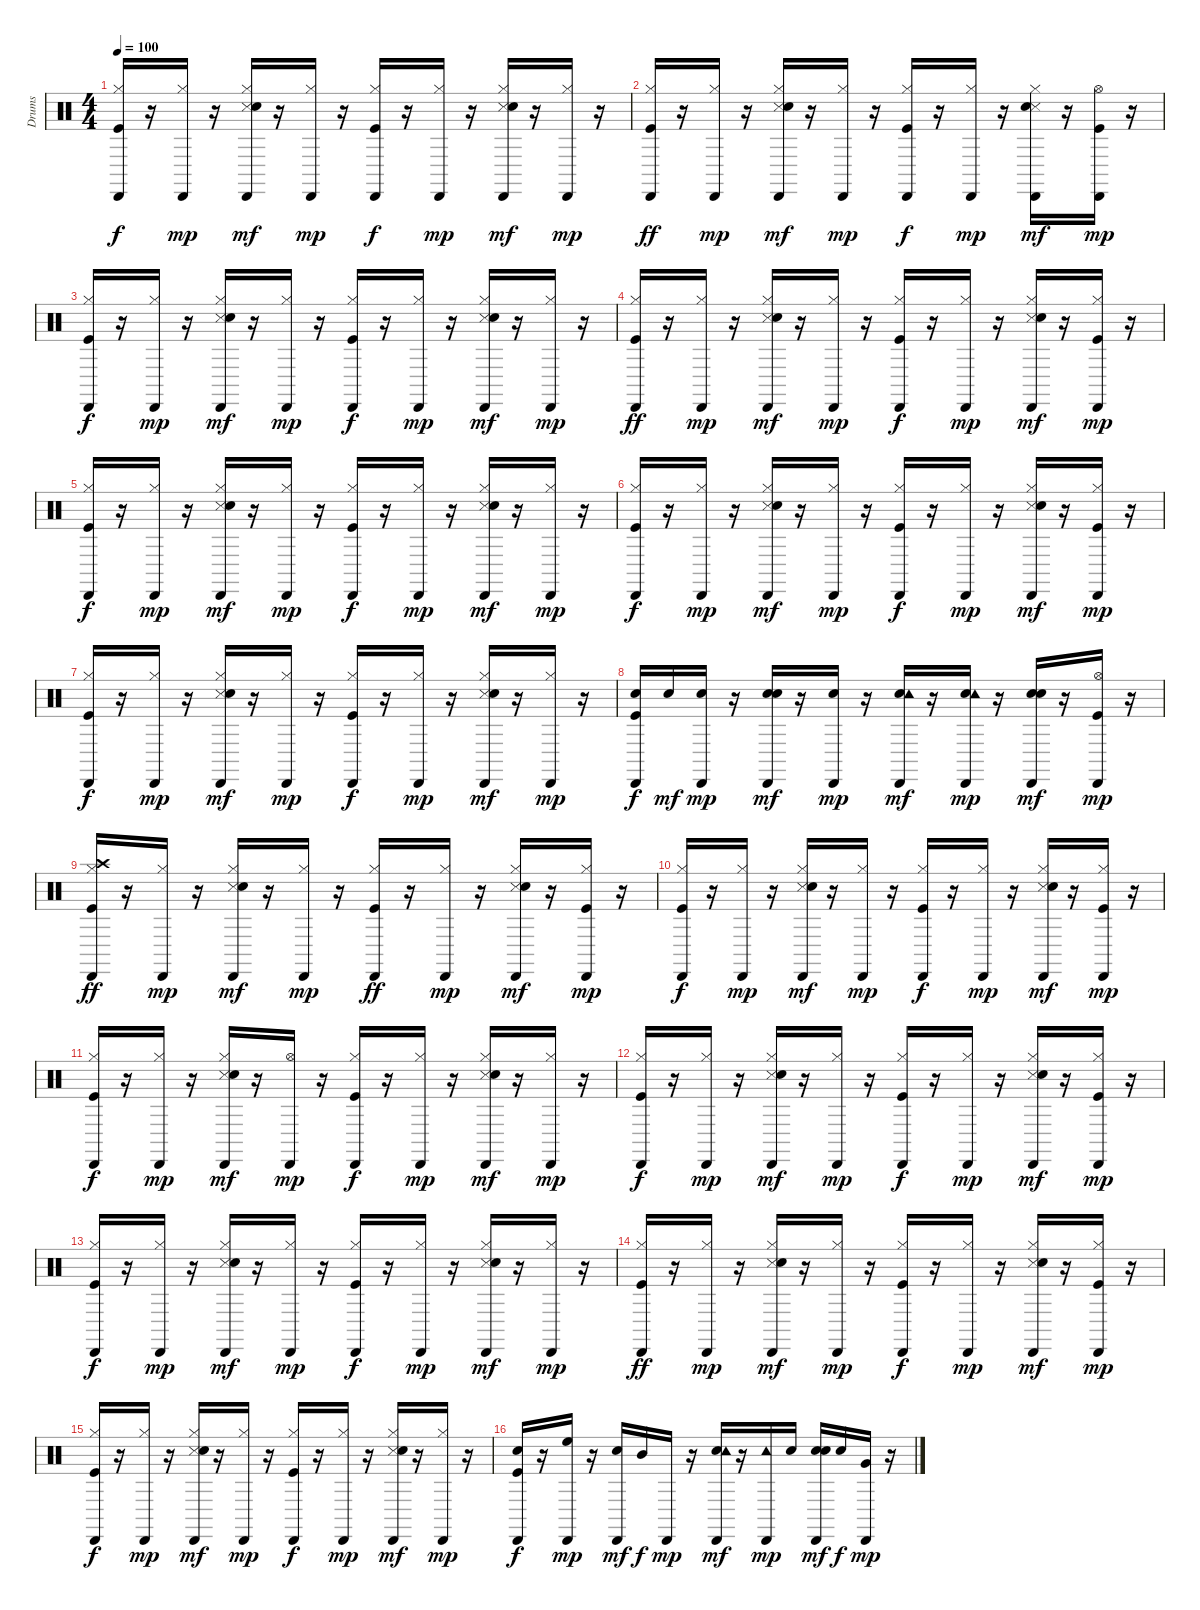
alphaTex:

\track ("Drums" "Drums") {instrument percussion}
\staff {score}
\articulation defaults
\ts (4 4)
\tempo 100
\clef neutral
\ks c
("Kick (hit)" "Hi-Hat (closed)" "Cabasa (hit)").16{dy f} r.16 ("Hi-Hat (closed)" "Cabasa (hit)").16{dy mp} r.16 ("Hi-Hat (closed)" "Snare (side stick) 3" "Hand Clap (hit)" "Cabasa (hit)").16{dy mf} r.16 ("Hi-Hat (closed)" "Cabasa (hit)").16{dy mp} r.16 ("Kick (hit)" "Hi-Hat (closed)" "Cabasa (hit)").16{dy f} r.16 ("Hi-Hat (closed)" "Cabasa (hit)").16{dy mp} r.16 ("Hi-Hat (closed)" "Snare (side stick) 3" "Hand Clap (hit)" "Cabasa (hit)").16{dy mf} r.16 ("Hi-Hat (closed)" "Cabasa (hit)").16{dy mp} r.16 |
("Kick (hit)" "Hi-Hat (closed)" "Cabasa (hit)").16{dy ff} r.16 ("Hi-Hat (closed)" "Cabasa (hit)").16{dy mp} r.16 ("Hi-Hat (closed)" "Snare (side stick) 3" "Hand Clap (hit)" "Cabasa (hit)").16{dy mf} r.16 ("Hi-Hat (closed)" "Cabasa (hit)").16{dy mp} r.16 ("Kick (hit)" "Hi-Hat (closed)" "Cabasa (hit)").16{dy f} r.16 ("Hi-Hat (closed)" "Cabasa (hit)").16{dy mp} r.16 ("Hi-Hat (closed)" "Snare (side stick) 3" "Hand Clap (hit)" "Cabasa (hit)").16{dy mf} r.16 ("Kick (hit)" "Hi-Hat (open)" "Cabasa (hit)").16{dy mp} r.16 |
("Kick (hit)" "Hi-Hat (closed)" "Cabasa (hit)").16{dy f} r.16 ("Hi-Hat (closed)" "Cabasa (hit)").16{dy mp} r.16 ("Hi-Hat (closed)" "Snare (side stick) 3" "Hand Clap (hit)" "Cabasa (hit)").16{dy mf} r.16 ("Hi-Hat (closed)" "Cabasa (hit)").16{dy mp} r.16 ("Kick (hit)" "Hi-Hat (closed)" "Cabasa (hit)").16{dy f} r.16 ("Hi-Hat (closed)" "Cabasa (hit)").16{dy mp} r.16 ("Hi-Hat (closed)" "Snare (side stick) 3" "Hand Clap (hit)" "Cabasa (hit)").16{dy mf} r.16 ("Hi-Hat (closed)" "Cabasa (hit)").16{dy mp} r.16 |
("Kick (hit)" "Hi-Hat (closed)" "Cabasa (hit)").16{dy ff} r.16 ("Hi-Hat (closed)" "Cabasa (hit)").16{dy mp} r.16 ("Hi-Hat (closed)" "Snare (side stick) 3" "Hand Clap (hit)" "Cabasa (hit)").16{dy mf} r.16 ("Hi-Hat (closed)" "Cabasa (hit)").16{dy mp} r.16 ("Kick (hit)" "Hi-Hat (closed)" "Cabasa (hit)").16{dy f} r.16 ("Hi-Hat (closed)" "Cabasa (hit)").16{dy mp} r.16 ("Hi-Hat (closed)" "Snare (side stick) 3" "Hand Clap (hit)" "Cabasa (hit)").16{dy mf} r.16 ("Kick (hit)" "Hi-Hat (closed)" "Cabasa (hit)").16{dy mp} r.16 |
("Kick (hit)" "Hi-Hat (closed)" "Cabasa (hit)").16{dy f} r.16 ("Hi-Hat (closed)" "Cabasa (hit)").16{dy mp} r.16 ("Hi-Hat (closed)" "Snare (side stick) 3" "Hand Clap (hit)" "Cabasa (hit)").16{dy mf} r.16 ("Hi-Hat (closed)" "Cabasa (hit)").16{dy mp} r.16 ("Kick (hit)" "Hi-Hat (closed)" "Cabasa (hit)").16{dy f} r.16 ("Hi-Hat (closed)" "Cabasa (hit)").16{dy mp} r.16 ("Hi-Hat (closed)" "Snare (side stick) 3" "Hand Clap (hit)" "Cabasa (hit)").16{dy mf} r.16 ("Hi-Hat (closed)" "Cabasa (hit)").16{dy mp} r.16 |
("Kick (hit)" "Hi-Hat (closed)" "Cabasa (hit)").16{dy f} r.16 ("Hi-Hat (closed)" "Cabasa (hit)").16{dy mp} r.16 ("Hi-Hat (closed)" "Snare (side stick) 3" "Hand Clap (hit)" "Cabasa (hit)").16{dy mf} r.16 ("Hi-Hat (closed)" "Cabasa (hit)").16{dy mp} r.16 ("Kick (hit)" "Hi-Hat (closed)" "Cabasa (hit)").16{dy f} r.16 ("Hi-Hat (closed)" "Cabasa (hit)").16{dy mp} r.16 ("Hi-Hat (closed)" "Snare (side stick) 3" "Hand Clap (hit)" "Cabasa (hit)").16{dy mf} r.16 ("Kick (hit)" "Hi-Hat (closed)" "Cabasa (hit)").16{dy mp} r.16 |
("Kick (hit)" "Hi-Hat (closed)" "Cabasa (hit)").16{dy f} r.16 ("Hi-Hat (closed)" "Cabasa (hit)").16{dy mp} r.16 ("Hi-Hat (closed)" "Snare (side stick) 3" "Hand Clap (hit)" "Cabasa (hit)").16{dy mf} r.16 ("Hi-Hat (closed)" "Cabasa (hit)").16{dy mp} r.16 ("Kick (hit)" "Hi-Hat (closed)" "Cabasa (hit)").16{dy f} r.16 ("Hi-Hat (closed)" "Cabasa (hit)").16{dy mp} r.16 ("Hi-Hat (closed)" "Snare (side stick) 3" "Hand Clap (hit)" "Cabasa (hit)").16{dy mf} r.16 ("Hi-Hat (closed)" "Cabasa (hit)").16{dy mp} r.16 |
("Kick (hit)" "Snare (hit) 2" "Cabasa (hit)").16{dy f} "Snare (hit) 2".16{dy mf} ("Snare (hit) 2" "Cabasa (hit)").16{dy mp} r.16 ("Snare (hit) 2" "Hand Clap (hit)" "Cabasa (hit)").16{dy mf} r.16 ("Snare (hit) 2" "Cabasa (hit)").16{dy mp} r.16 ("Snare (hit) 2" "Tambourine (hit)" "Cabasa (hit)").16{dy mf} r.16 ("Snare (hit) 2" "Tambourine (hit)" "Cabasa (hit)").16{dy mp} r.16 ("Snare (hit) 2" "Hand Clap (hit)" "Cabasa (hit)").16{dy mf} r.16 ("Kick (hit)" "Hi-Hat (open)" "Cabasa (hit)").16{dy mp} r.16 |
("Kick (hit)" "Hi-Hat (closed)" "Crash high (hit)" "Cabasa (hit)").16{dy ff} r.16 ("Hi-Hat (closed)" "Cabasa (hit)").16{dy mp} r.16 ("Hi-Hat (closed)" "Snare (side stick) 3" "Hand Clap (hit)" "Cabasa (hit)").16{dy mf} r.16 ("Hi-Hat (closed)" "Cabasa (hit)").16{dy mp} r.16 ("Kick (hit)" "Hi-Hat (closed)" "Cabasa (hit)").16{dy ff} r.16 ("Hi-Hat (closed)" "Cabasa (hit)").16{dy mp} r.16 ("Hi-Hat (closed)" "Snare (side stick) 3" "Hand Clap (hit)" "Cabasa (hit)").16{dy mf} r.16 ("Kick (hit)" "Hi-Hat (closed)" "Cabasa (hit)").16{dy mp} r.16 |
("Kick (hit)" "Hi-Hat (closed)" "Cabasa (hit)").16{dy f} r.16 ("Hi-Hat (closed)" "Cabasa (hit)").16{dy mp} r.16 ("Hi-Hat (closed)" "Snare (side stick) 3" "Hand Clap (hit)" "Cabasa (hit)").16{dy mf} r.16 ("Hi-Hat (closed)" "Cabasa (hit)").16{dy mp} r.16 ("Kick (hit)" "Hi-Hat (closed)" "Cabasa (hit)").16{dy f} r.16 ("Hi-Hat (closed)" "Cabasa (hit)").16{dy mp} r.16 ("Hi-Hat (closed)" "Snare (side stick) 3" "Hand Clap (hit)" "Cabasa (hit)").16{dy mf} r.16 ("Kick (hit)" "Hi-Hat (closed)" "Cabasa (hit)").16{dy mp} r.16 |
("Kick (hit)" "Hi-Hat (closed)" "Cabasa (hit)").16{dy f} r.16 ("Hi-Hat (closed)" "Cabasa (hit)").16{dy mp} r.16 ("Hi-Hat (closed)" "Snare (side stick) 3" "Hand Clap (hit)" "Cabasa (hit)").16{dy mf} r.16 ("Hi-Hat (open)" "Cabasa (hit)").16{dy mp} r.16 ("Kick (hit)" "Hi-Hat (closed)" "Cabasa (hit)").16{dy f} r.16 ("Hi-Hat (closed)" "Cabasa (hit)").16{dy mp} r.16 ("Hi-Hat (closed)" "Snare (side stick) 3" "Hand Clap (hit)" "Cabasa (hit)").16{dy mf} r.16 ("Hi-Hat (closed)" "Cabasa (hit)").16{dy mp} r.16 |
("Kick (hit)" "Hi-Hat (closed)" "Cabasa (hit)").16{dy f} r.16 ("Hi-Hat (closed)" "Cabasa (hit)").16{dy mp} r.16 ("Hi-Hat (closed)" "Snare (side stick) 3" "Hand Clap (hit)" "Cabasa (hit)").16{dy mf} r.16 ("Hi-Hat (closed)" "Cabasa (hit)").16{dy mp} r.16 ("Kick (hit)" "Hi-Hat (closed)" "Cabasa (hit)").16{dy f} r.16 ("Hi-Hat (closed)" "Cabasa (hit)").16{dy mp} r.16 ("Hi-Hat (closed)" "Snare (side stick) 3" "Hand Clap (hit)" "Cabasa (hit)").16{dy mf} r.16 ("Kick (hit)" "Hi-Hat (closed)" "Cabasa (hit)").16{dy mp} r.16 |
("Kick (hit)" "Hi-Hat (closed)" "Cabasa (hit)").16{dy f} r.16 ("Hi-Hat (closed)" "Cabasa (hit)").16{dy mp} r.16 ("Hi-Hat (closed)" "Snare (side stick) 3" "Hand Clap (hit)" "Cabasa (hit)").16{dy mf} r.16 ("Hi-Hat (closed)" "Cabasa (hit)").16{dy mp} r.16 ("Kick (hit)" "Hi-Hat (closed)" "Cabasa (hit)").16{dy f} r.16 ("Hi-Hat (closed)" "Cabasa (hit)").16{dy mp} r.16 ("Hi-Hat (closed)" "Snare (side stick) 3" "Hand Clap (hit)" "Cabasa (hit)").16{dy mf} r.16 ("Hi-Hat (closed)" "Cabasa (hit)").16{dy mp} r.16 |
("Kick (hit)" "Hi-Hat (closed)" "Cabasa (hit)").16{dy ff} r.16 ("Hi-Hat (closed)" "Cabasa (hit)").16{dy mp} r.16 ("Hi-Hat (closed)" "Snare (side stick) 3" "Hand Clap (hit)" "Cabasa (hit)").16{dy mf} r.16 ("Hi-Hat (closed)" "Cabasa (hit)").16{dy mp} r.16 ("Kick (hit)" "Hi-Hat (closed)" "Cabasa (hit)").16{dy f} r.16 ("Hi-Hat (closed)" "Cabasa (hit)").16{dy mp} r.16 ("Hi-Hat (closed)" "Snare (side stick) 3" "Hand Clap (hit)" "Cabasa (hit)").16{dy mf} r.16 ("Kick (hit)" "Hi-Hat (closed)" "Cabasa (hit)").16{dy mp} r.16 |
("Kick (hit)" "Hi-Hat (closed)" "Cabasa (hit)").16{dy f} r.16 ("Hi-Hat (closed)" "Cabasa (hit)").16{dy mp} r.16 ("Hi-Hat (closed)" "Snare (side stick) 3" "Hand Clap (hit)" "Cabasa (hit)").16{dy mf} r.16 ("Hi-Hat (closed)" "Cabasa (hit)").16{dy mp} r.16 ("Kick (hit)" "Hi-Hat (closed)" "Cabasa (hit)").16{dy f} r.16 ("Hi-Hat (closed)" "Cabasa (hit)").16{dy mp} r.16 ("Hi-Hat (closed)" "Snare (side stick) 3" "Hand Clap (hit)" "Cabasa (hit)").16{dy mf} r.16 ("Hi-Hat (closed)" "Cabasa (hit)").16{dy mp} r.16 |
("Kick (hit)" "Snare (hit) 2" "Cabasa (hit)").16{dy f} r.16 ("High Floor Tom (hit)" "Cabasa (hit)").16{dy mp} r.16 ("Hand Clap (hit)" "Cabasa (hit)").16{dy mf} "Mid Tom (hit)".16{dy f} "Cabasa (hit)".16{dy mp} r.16 ("Snare (hit) 2" "Tambourine (hit)" "Cabasa (hit)").16{dy mf} r.16 ("Tambourine (hit)" "Cabasa (hit)").16{dy mp} "Snare (hit) 2".16 ("Snare (hit) 2" "Hand Clap (hit)" "Cabasa (hit)").16{dy mf} "Snare (hit) 2".16{dy f} ("Very Low Tom (hit)" "Cabasa (hit)").16{dy mp} r.16
